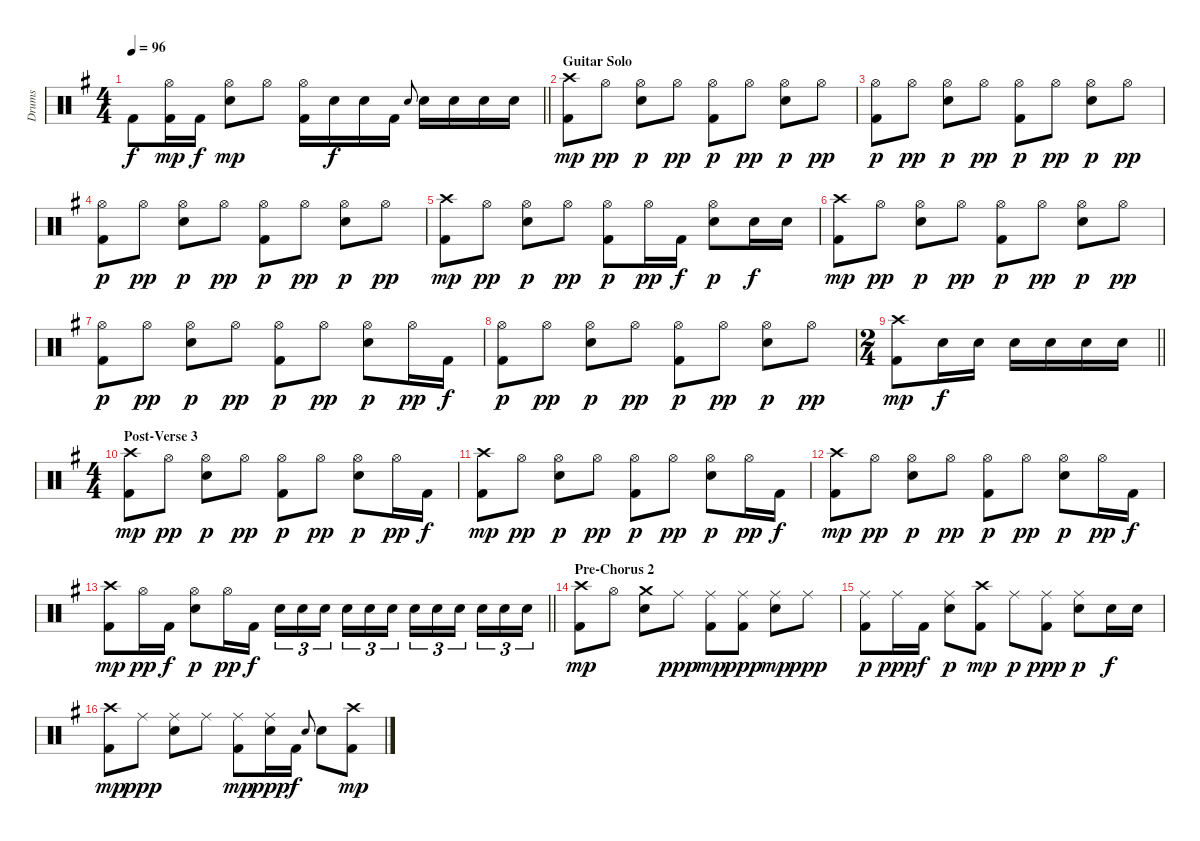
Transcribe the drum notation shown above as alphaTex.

\track ("Drums" "Drums") {instrument percussion}
\staff {score}
\articulation defaults
\ts (4 4)
\tempo 96
\clef neutral
\barLineRight lightlight
\ks g "Kick (hit) 2"{t}.8{dy f}
("Kick (hit) 2" "Hi-Hat (open)").16{dy mp} "Kick (hit) 2".16{dy f} ("Electric Snare (hit)" "Hi-Hat (open)").8{dy mp} "Hi-Hat (open)".8 ("Kick (hit) 2" "Hi-Hat (open)").16 "Electric Snare (hit)".16{dy f} "Electric Snare (hit)".16 "Kick (hit) 2".16 "Electric Snare (hit)".8{gr onbeat} "Electric Snare (hit)".16 "Electric Snare (hit)".16 "Electric Snare (hit)".16 "Electric Snare (hit)".16 |
\section ("" "Guitar Solo")
("Crash high (hit)" "Kick (hit) 2").8{dy mp} "Hi-Hat (open)".8{dy pp} ("Hi-Hat (open)" "Electric Snare (hit)").8{dy p} "Hi-Hat (open)".8{dy pp} ("Hi-Hat (open)" "Kick (hit) 2").8{dy p} "Hi-Hat (open)".8{dy pp} ("Hi-Hat (open)" "Electric Snare (hit)").8{dy p} "Hi-Hat (open)".8{dy pp} |
("Hi-Hat (open)" "Kick (hit) 2").8{dy p} "Hi-Hat (open)".8{dy pp} ("Hi-Hat (open)" "Electric Snare (hit)").8{dy p} "Hi-Hat (open)".8{dy pp} ("Hi-Hat (open)" "Kick (hit) 2").8{dy p} "Hi-Hat (open)".8{dy pp} ("Hi-Hat (open)" "Electric Snare (hit)").8{dy p} "Hi-Hat (open)".8{dy pp} |
("Hi-Hat (open)" "Kick (hit) 2").8{dy p} "Hi-Hat (open)".8{dy pp} ("Hi-Hat (open)" "Electric Snare (hit)").8{dy p} "Hi-Hat (open)".8{dy pp} ("Hi-Hat (open)" "Kick (hit) 2").8{dy p} "Hi-Hat (open)".8{dy pp} ("Hi-Hat (open)" "Electric Snare (hit)").8{dy p} "Hi-Hat (open)".8{dy pp} |
("Crash high (hit)" "Kick (hit) 2").8{dy mp} "Hi-Hat (open)".8{dy pp} ("Hi-Hat (open)" "Electric Snare (hit)").8{dy p} "Hi-Hat (open)".8{dy pp} ("Hi-Hat (open)" "Kick (hit) 2").8{dy p} "Hi-Hat (open)".16{dy pp} "Kick (hit) 2".16{dy f} ("Hi-Hat (open)" "Electric Snare (hit)").8{dy p} "Electric Snare (hit)".16{dy f} "Electric Snare (hit)".16 |
("Crash high (hit)" "Kick (hit) 2").8{dy mp} "Hi-Hat (open)".8{dy pp} ("Hi-Hat (open)" "Electric Snare (hit)").8{dy p} "Hi-Hat (open)".8{dy pp} ("Hi-Hat (open)" "Kick (hit) 2").8{dy p} "Hi-Hat (open)".8{dy pp} ("Hi-Hat (open)" "Electric Snare (hit)").8{dy p} "Hi-Hat (open)".8{dy pp} |
("Hi-Hat (open)" "Kick (hit) 2").8{dy p} "Hi-Hat (open)".8{dy pp} ("Hi-Hat (open)" "Electric Snare (hit)").8{dy p} "Hi-Hat (open)".8{dy pp} ("Hi-Hat (open)" "Kick (hit) 2").8{dy p} "Hi-Hat (open)".8{dy pp} ("Hi-Hat (open)" "Electric Snare (hit)").8{dy p} "Hi-Hat (open)".16{dy pp} "Kick (hit) 2".16{dy f} |
("Hi-Hat (open)" "Kick (hit) 2").8{dy p} "Hi-Hat (open)".8{dy pp} ("Hi-Hat (open)" "Electric Snare (hit)").8{dy p} "Hi-Hat (open)".8{dy pp} ("Hi-Hat (open)" "Kick (hit) 2").8{dy p} "Hi-Hat (open)".8{dy pp} ("Hi-Hat (open)" "Electric Snare (hit)").8{dy p} "Hi-Hat (open)".8{dy pp} |
\ts (2 4)
\barLineRight lightlight
("Crash high (hit)" "Kick (hit) 2").8{dy mp} "Electric Snare (hit)".16{dy f} "Electric Snare (hit)".16 "Electric Snare (hit)".16 "Electric Snare (hit)".16 "Electric Snare (hit)".16 "Electric Snare (hit)".16 |
\ts (4 4)
\section ("" "Post-Verse 3")
("Crash high (hit)" "Kick (hit) 2").8{dy mp} "Hi-Hat (open)".8{dy pp} ("Hi-Hat (open)" "Electric Snare (hit)").8{dy p} "Hi-Hat (open)".8{dy pp} ("Hi-Hat (open)" "Kick (hit) 2").8{dy p} "Hi-Hat (open)".8{dy pp} ("Hi-Hat (open)" "Electric Snare (hit)").8{dy p} "Hi-Hat (open)".16{dy pp} "Kick (hit) 2".16{dy f} |
("Crash high (hit)" "Kick (hit) 2").8{dy mp} "Hi-Hat (open)".8{dy pp} ("Hi-Hat (open)" "Electric Snare (hit)").8{dy p} "Hi-Hat (open)".8{dy pp} ("Hi-Hat (open)" "Kick (hit) 2").8{dy p} "Hi-Hat (open)".8{dy pp} ("Hi-Hat (open)" "Electric Snare (hit)").8{dy p} "Hi-Hat (open)".16{dy pp} "Kick (hit) 2".16{dy f} |
("Crash high (hit)" "Kick (hit) 2").8{dy mp} "Hi-Hat (open)".8{dy pp} ("Hi-Hat (open)" "Electric Snare (hit)").8{dy p} "Hi-Hat (open)".8{dy pp} ("Hi-Hat (open)" "Kick (hit) 2").8{dy p} "Hi-Hat (open)".8{dy pp} ("Hi-Hat (open)" "Electric Snare (hit)").8{dy p} "Hi-Hat (open)".16{dy pp} "Kick (hit) 2".16{dy f} |
\barLineRight lightlight
("Crash high (hit)" "Kick (hit) 2").8{dy mp} "Hi-Hat (open)".16{dy pp} "Kick (hit) 2".16{dy f} ("Hi-Hat (open)" "Electric Snare (hit)").8{dy p} "Hi-Hat (open)".16{dy pp} "Kick (hit) 2".16{dy f} "Electric Snare (hit)".16{tu (3 2)} "Electric Snare (hit)".16{tu (3 2)} "Electric Snare (hit)".16{tu (3 2) beam splitsecondary} "Electric Snare (hit)".16{tu (3 2)} "Electric Snare (hit)".16{tu (3 2)} "Electric Snare (hit)".16{tu (3 2)} "Electric Snare (hit)".16{tu (3 2)} "Electric Snare (hit)".16{tu (3 2)} "Electric Snare (hit)".16{tu (3 2) beam splitsecondary} "Electric Snare (hit)".16{tu (3 2)} "Electric Snare (hit)".16{tu (3 2)} "Electric Snare (hit)".16{tu (3 2)} |
\section ("" "Pre-Chorus 2")
("Kick (hit) 2" "Crash high (hit)").8{dy mp} "Hi-Hat (open)".8 ("Electric Snare (hit)" "Crash medium (hit)").8 "Ride (middle)".8{dy ppp} ("Ride (middle)" "Kick (hit) 2").8{dy mp} ("Ride (middle)" "Kick (hit) 2").8{dy ppp} ("Ride (middle)" "Electric Snare (hit)").8{dy mp} "Ride (middle)".8{dy ppp} |
("Ride (middle)" "Kick (hit) 2").8{dy p} "Ride (middle)".16{dy ppp} "Kick (hit) 2".16{dy f} ("Ride (middle)" "Electric Snare (hit)").8{dy p} ("Crash high (hit)" "Kick (hit) 2").8{dy mp} "Ride (middle)".8{dy p} ("Ride (middle)" "Kick (hit) 2").8{dy ppp} ("Ride (middle)" "Electric Snare (hit)").8{dy p} "Electric Snare (hit)".16{dy f} "Electric Snare (hit)".16 |
("Kick (hit) 2" "Crash high (hit)").8{dy mp} "Ride (middle)".8{dy ppp} ("Electric Snare (hit)" "Ride (middle)").8 "Ride (middle)".8 ("Ride (middle)" "Kick (hit) 2").8{dy mp} ("Ride (middle)" "Electric Snare (hit)").16{dy ppp} "Kick (hit) 2".16{dy f} "Electric Snare (hit)".8{gr onbeat} "Electric Snare (hit)".8 ("Crash high (hit)" "Kick (hit) 2").8{dy mp}
